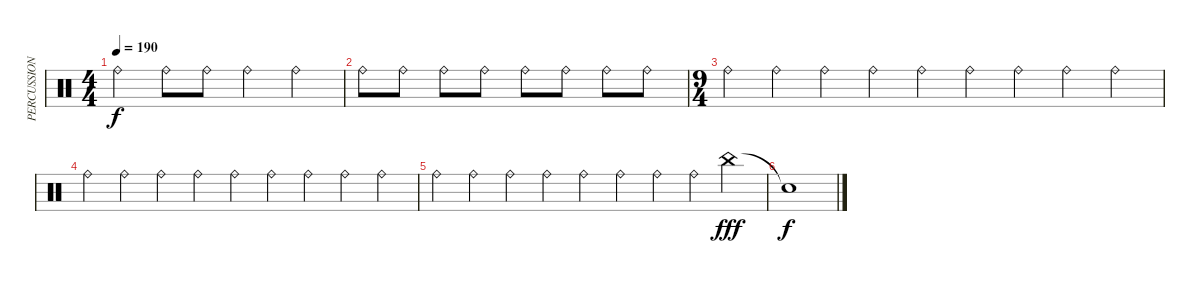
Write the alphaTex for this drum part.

\track ("PERCUSSION" "PERCUSSION") {instrument percussion}
\staff {score}
\articulation defaults
\ts (4 4)
\tempo 190
\clef neutral
\ks c "Ride (bell)".4{dy f} "Ride (bell)".8 "Ride (bell)".8 "Ride (bell)".4 "Ride (bell)".4
|
"Ride (bell)".8 "Ride (bell)".8 "Ride (bell)".8 "Ride (bell)".8 "Ride (bell)".8 "Ride (bell)".8 "Ride (bell)".8 "Ride (bell)".8 |
\ts (9 4)
"Ride (bell)".4 "Ride (bell)".4 "Ride (bell)".4 "Ride (bell)".4 "Ride (bell)".4 "Ride (bell)".4 "Ride (bell)".4 "Ride (bell)".4 "Ride (bell)".4 |
"Ride (bell)".4 "Ride (bell)".4 "Ride (bell)".4 "Ride (bell)".4 "Ride (bell)".4 "Ride (bell)".4 "Ride (bell)".4 "Ride (bell)".4 "Ride (bell)".4 |
"Ride (bell)".4 "Ride (bell)".4 "Ride (bell)".4 "Ride (bell)".4 "Ride (bell)".4 "Ride (bell)".4 "Ride (bell)".4 "Ride (bell)".4 "China (hit)".4{dy fff} |
"Snare (hit)"{t}.1{dy f}
